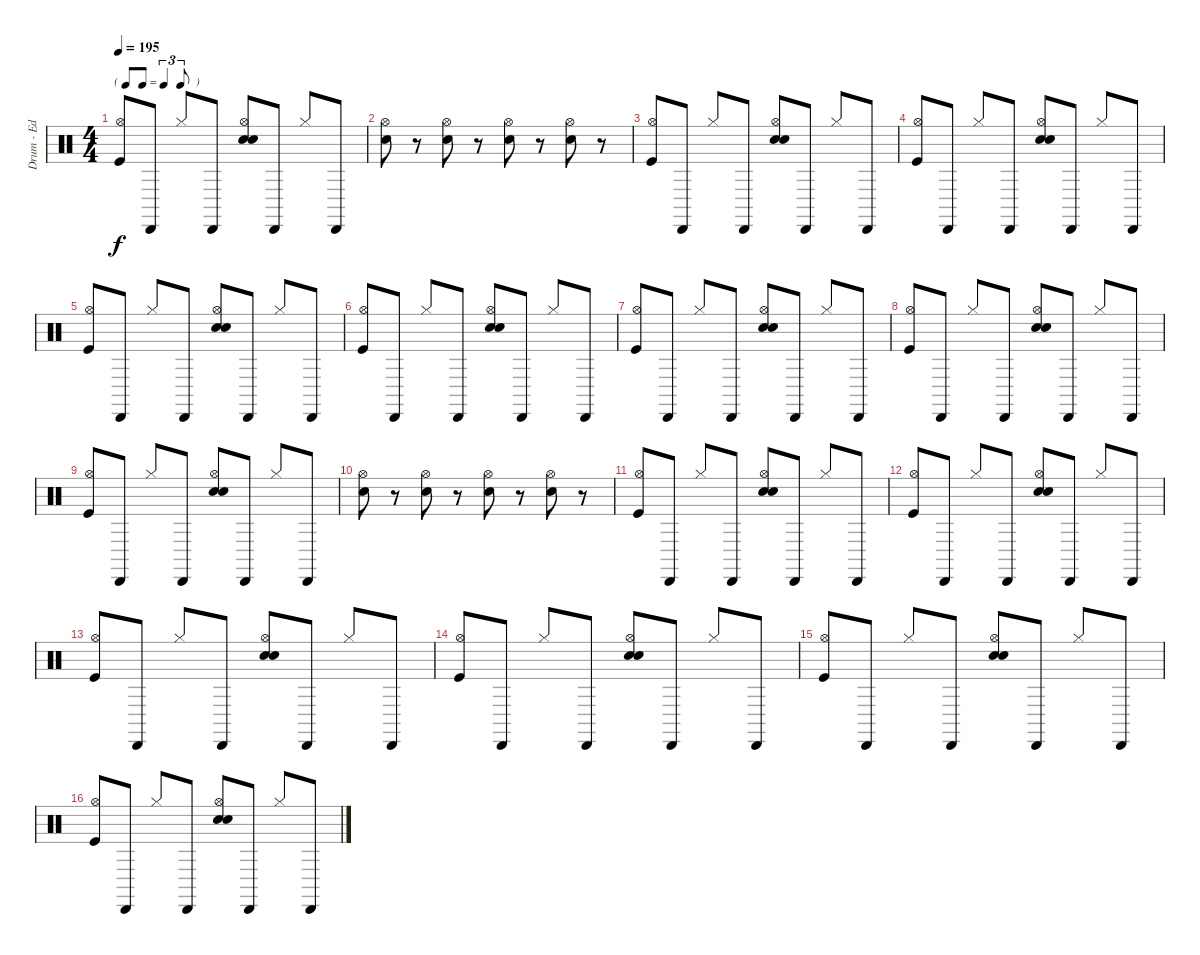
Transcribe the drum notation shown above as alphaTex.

\track ("Drum - Ed" "Drum - Ed") {instrument percussion}
\staff {score}
\articulation defaults
\ts (4 4)
\tf triplet8th
\tempo 195
\clef neutral
\ks c
("Hi-Hat (open)" "Kick (hit)").8{dy f} "Cabasa (hit)".8 "Hi-Hat (closed)".8 "Cabasa (hit)".8 ("Hi-Hat (open)" "Hand Clap (hit)" "Electric Snare (hit)").8 "Cabasa (hit)".8 "Hi-Hat (closed)".8 "Cabasa (hit)".8 |
("Hi-Hat (open)" "Electric Snare (hit)").8 r.8 ("Hi-Hat (open)" "Electric Snare (hit)").8 r.8 ("Hi-Hat (open)" "Electric Snare (hit)").8 r.8 ("Hi-Hat (open)" "Electric Snare (hit)").8 r.8 |
("Hi-Hat (open)" "Kick (hit)").8 "Cabasa (hit)".8 "Hi-Hat (closed)".8 "Cabasa (hit)".8 ("Hi-Hat (open)" "Hand Clap (hit)" "Electric Snare (hit)").8 "Cabasa (hit)".8 "Hi-Hat (closed)".8 "Cabasa (hit)".8 |
("Hi-Hat (open)" "Kick (hit)").8 "Cabasa (hit)".8 "Hi-Hat (closed)".8 "Cabasa (hit)".8 ("Hi-Hat (open)" "Hand Clap (hit)" "Electric Snare (hit)").8 "Cabasa (hit)".8 "Hi-Hat (closed)".8 "Cabasa (hit)".8 |
("Hi-Hat (open)" "Kick (hit)").8 "Cabasa (hit)".8 "Hi-Hat (closed)".8 "Cabasa (hit)".8 ("Hi-Hat (open)" "Hand Clap (hit)" "Electric Snare (hit)").8 "Cabasa (hit)".8 "Hi-Hat (closed)".8 "Cabasa (hit)".8 |
("Hi-Hat (open)" "Kick (hit)").8 "Cabasa (hit)".8 "Hi-Hat (closed)".8 "Cabasa (hit)".8 ("Hi-Hat (open)" "Hand Clap (hit)" "Electric Snare (hit)").8 "Cabasa (hit)".8 "Hi-Hat (closed)".8 "Cabasa (hit)".8 |
("Hi-Hat (open)" "Kick (hit)").8 "Cabasa (hit)".8 "Hi-Hat (closed)".8 "Cabasa (hit)".8 ("Hi-Hat (open)" "Hand Clap (hit)" "Electric Snare (hit)").8 "Cabasa (hit)".8 "Hi-Hat (closed)".8 "Cabasa (hit)".8 |
("Hi-Hat (open)" "Kick (hit)").8 "Cabasa (hit)".8 "Hi-Hat (closed)".8 "Cabasa (hit)".8 ("Hi-Hat (open)" "Hand Clap (hit)" "Electric Snare (hit)").8 "Cabasa (hit)".8 "Hi-Hat (closed)".8 "Cabasa (hit)".8 |
("Hi-Hat (open)" "Kick (hit)").8 "Cabasa (hit)".8 "Hi-Hat (closed)".8 "Cabasa (hit)".8 ("Hi-Hat (open)" "Hand Clap (hit)" "Electric Snare (hit)").8 "Cabasa (hit)".8 "Hi-Hat (closed)".8 "Cabasa (hit)".8 |
("Hi-Hat (open)" "Electric Snare (hit)").8 r.8 ("Hi-Hat (open)" "Electric Snare (hit)").8 r.8 ("Hi-Hat (open)" "Electric Snare (hit)").8 r.8 ("Hi-Hat (open)" "Electric Snare (hit)").8 r.8 |
("Hi-Hat (open)" "Kick (hit)").8 "Cabasa (hit)".8 "Hi-Hat (closed)".8 "Cabasa (hit)".8 ("Hi-Hat (open)" "Hand Clap (hit)" "Electric Snare (hit)").8 "Cabasa (hit)".8 "Hi-Hat (closed)".8 "Cabasa (hit)".8 |
("Hi-Hat (open)" "Kick (hit)").8 "Cabasa (hit)".8 "Hi-Hat (closed)".8 "Cabasa (hit)".8 ("Hi-Hat (open)" "Hand Clap (hit)" "Electric Snare (hit)").8 "Cabasa (hit)".8 "Hi-Hat (closed)".8 "Cabasa (hit)".8 |
("Hi-Hat (open)" "Kick (hit)").8 "Cabasa (hit)".8 "Hi-Hat (closed)".8 "Cabasa (hit)".8 ("Hi-Hat (open)" "Hand Clap (hit)" "Electric Snare (hit)").8 "Cabasa (hit)".8 "Hi-Hat (closed)".8 "Cabasa (hit)".8 |
("Hi-Hat (open)" "Kick (hit)").8 "Cabasa (hit)".8 "Hi-Hat (closed)".8 "Cabasa (hit)".8 ("Hi-Hat (open)" "Hand Clap (hit)" "Electric Snare (hit)").8 "Cabasa (hit)".8 "Hi-Hat (closed)".8 "Cabasa (hit)".8 |
("Hi-Hat (open)" "Kick (hit)").8 "Cabasa (hit)".8 "Hi-Hat (closed)".8 "Cabasa (hit)".8 ("Hi-Hat (open)" "Hand Clap (hit)" "Electric Snare (hit)").8 "Cabasa (hit)".8 "Hi-Hat (closed)".8 "Cabasa (hit)".8 |
("Hi-Hat (open)" "Kick (hit)").8 "Cabasa (hit)".8 "Hi-Hat (closed)".8 "Cabasa (hit)".8 ("Hi-Hat (open)" "Hand Clap (hit)" "Electric Snare (hit)").8 "Cabasa (hit)".8 "Hi-Hat (closed)".8 "Cabasa (hit)".8
